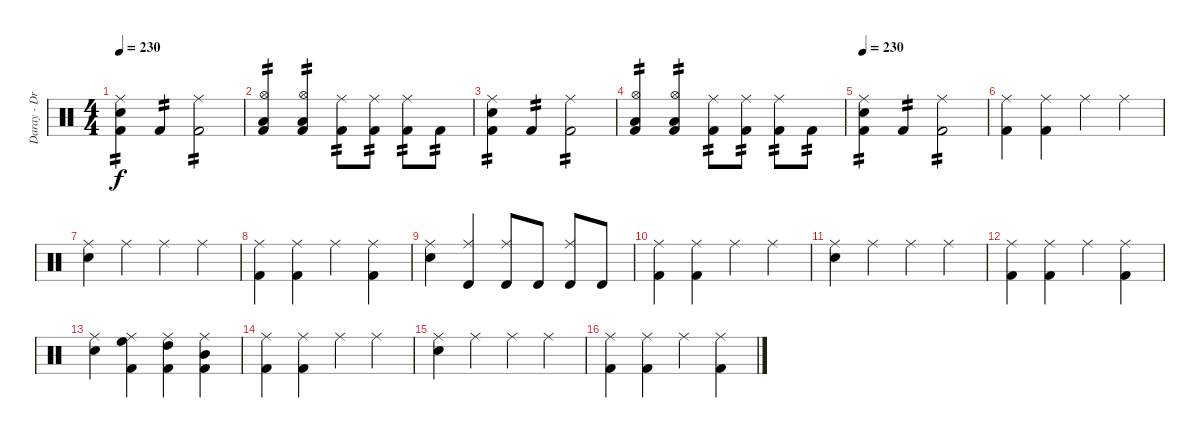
\track ("Daray - Drums" "Daray - Dr") {instrument percussion}
\staff {score}
\articulation defaults
\ts (4 4)
\tempo 230
\clef neutral
\ks c
("Ride (middle)" "Electric Snare (hit)" "Kick (hit) 2").4{tp 2 dy f} "Kick (hit) 2".4{tp 2} ("Ride (middle)" "Kick (hit) 2").2{tp 2} |
("Hi-Hat (open)" "Low Floor Tom (hit)" "Kick (hit) 2").4{tp 2} ("Hi-Hat (open)" "Low Floor Tom (hit)" "Kick (hit) 2").4{tp 2} ("Ride (middle)" "Kick (hit) 2").8{tp 2} ("Ride (middle)" "Kick (hit) 2").8{tp 2} ("Ride (middle)" "Kick (hit) 2").8{tp 2} "Kick (hit) 2".8{tp 2} |
("Ride (middle)" "Electric Snare (hit)" "Kick (hit) 2").4{tp 2} "Kick (hit) 2".4{tp 2} ("Ride (middle)" "Kick (hit) 2").2{tp 2} |
("Hi-Hat (open)" "Low Floor Tom (hit)" "Kick (hit) 2").4{tp 2} ("Hi-Hat (open)" "Low Floor Tom (hit)" "Kick (hit) 2").4{tp 2} ("Ride (middle)" "Kick (hit) 2").8{tp 2} ("Ride (middle)" "Kick (hit) 2").8{tp 2} ("Ride (middle)" "Kick (hit) 2").8{tp 2} "Kick (hit) 2".8{tp 2} |
\tempo 230
("Ride (middle)" "Electric Snare (hit)" "Kick (hit) 2").4{tp 2} "Kick (hit) 2".4{tp 2} ("Ride (middle)" "Kick (hit) 2").2{tp 2} |
("Ride (middle)" "Kick (hit) 2").4 ("Ride (middle)" "Kick (hit) 2").4 "Ride (middle)".4 "Ride (middle)".4 |
("Ride (middle)" "Electric Snare (hit)").4 "Ride (middle)".4 "Ride (middle)".4 "Ride (middle)".4 |
("Ride (middle)" "Kick (hit) 2").4 ("Ride (middle)" "Kick (hit) 2").4 "Ride (middle)".4 ("Ride (middle)" "Kick (hit) 2").4 |
("Ride (middle)" "Electric Snare (hit)").4 ("Ride (middle)" "Timbale high (hit)").4 ("Ride (middle)" "Timbale high (hit)").8 "Timbale high (hit)".8 ("Ride (middle)" "Timbale high (hit)").8 "Timbale high (hit)".8 |
("Ride (middle)" "Kick (hit) 2").4 ("Ride (middle)" "Kick (hit) 2").4 "Ride (middle)".4 "Ride (middle)".4 |
("Ride (middle)" "Electric Snare (hit)").4 "Ride (middle)".4 "Ride (middle)".4 "Ride (middle)".4 |
("Ride (middle)" "Kick (hit) 2").4 ("Ride (middle)" "Kick (hit) 2").4 "Ride (middle)".4 ("Ride (middle)" "Kick (hit) 2").4 |
("Ride (middle)" "Electric Snare (hit)").4 ("Ride (middle)" "High Floor Tom (hit)" "Kick (hit) 2").4 ("Ride (middle)" "High Tom (hit)" "Kick (hit) 2").4 ("Ride (middle)" "Mid Tom (hit)" "Kick (hit) 2").4 |
("Ride (middle)" "Kick (hit) 2").4 ("Ride (middle)" "Kick (hit) 2").4 "Ride (middle)".4 "Ride (middle)".4 |
("Ride (middle)" "Electric Snare (hit)").4 "Ride (middle)".4 "Ride (middle)".4 "Ride (middle)".4 |
("Ride (middle)" "Kick (hit) 2").4 ("Ride (middle)" "Kick (hit) 2").4 "Ride (middle)".4 ("Ride (middle)" "Kick (hit) 2").4
